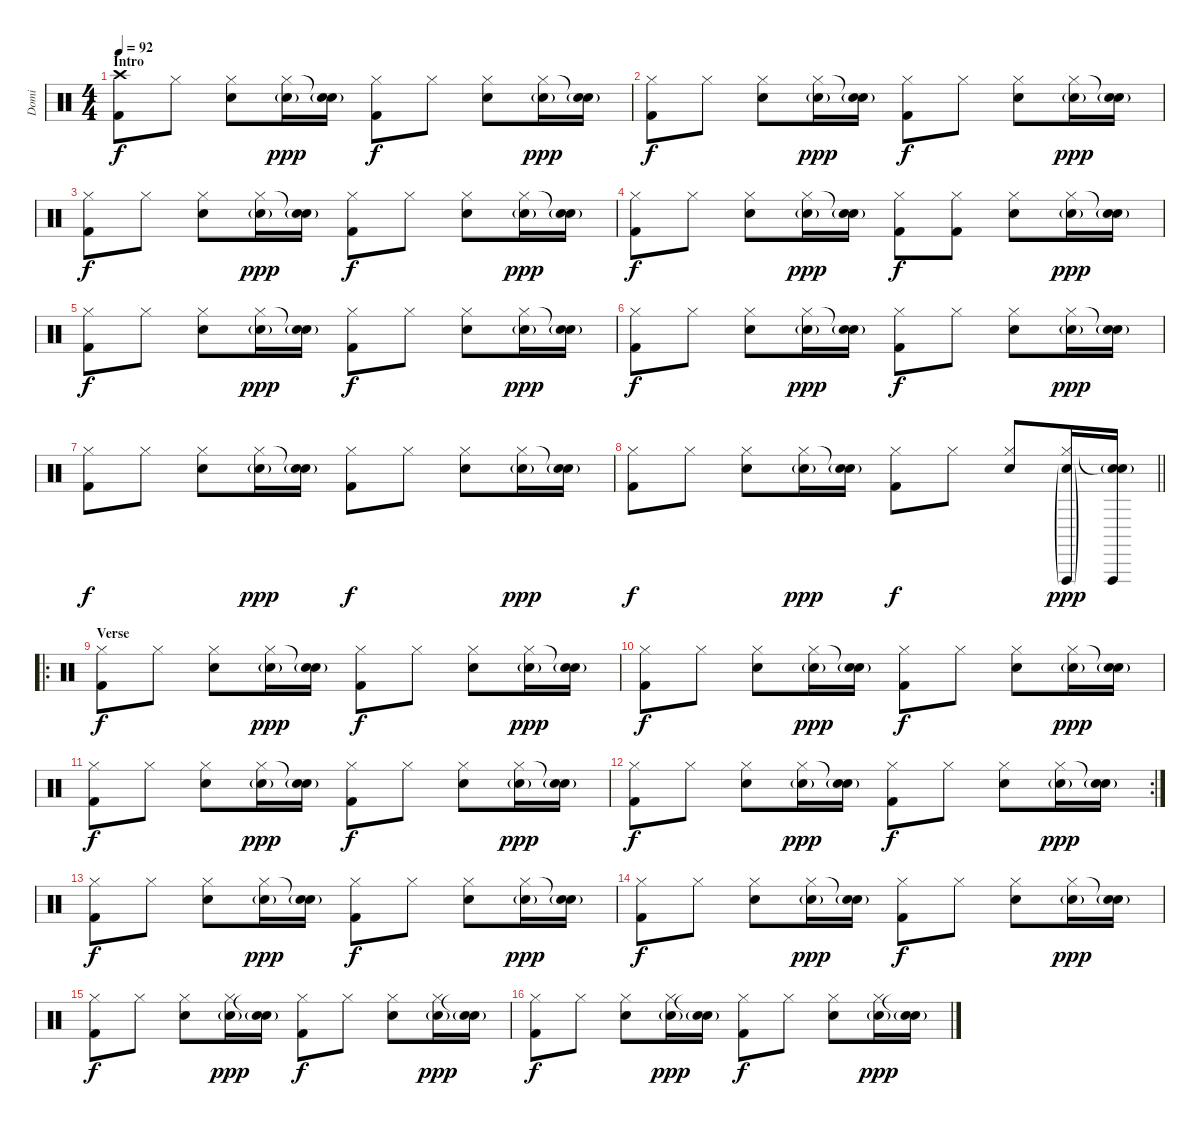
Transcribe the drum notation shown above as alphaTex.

\track ("Domi" "Domi") {instrument percussion}
\staff {score}
\articulation defaults
\ts (4 4)
\section ("" "Intro")
\tempo 92
\clef neutral
\ks c
("Crash high (hit)" "Kick (hit) 2").8{dy f} "Hi-Hat (closed)".8 ("Hi-Hat (closed)" "Electric Snare (hit)").8 ("Hi-Hat (closed)" "Electric Snare (hit)"{g}).16{dy ppp} ("Snare (hit)"{t} "Electric Snare (hit)"{g}).16 ("Hi-Hat (closed)" "Kick (hit) 2").8{dy f} "Hi-Hat (closed)".8 ("Hi-Hat (closed)" "Electric Snare (hit)").8 ("Hi-Hat (closed)" "Electric Snare (hit)"{g}).16{dy ppp} ("Snare (hit)"{t} "Electric Snare (hit)"{g}).16 |
("Hi-Hat (closed)" "Kick (hit) 2").8{dy f} "Hi-Hat (closed)".8 ("Hi-Hat (closed)" "Electric Snare (hit)").8 ("Hi-Hat (closed)" "Electric Snare (hit)"{g}).16{dy ppp} ("Snare (hit)"{t} "Electric Snare (hit)"{g}).16 ("Hi-Hat (closed)" "Kick (hit) 2").8{dy f} "Hi-Hat (closed)".8 ("Hi-Hat (closed)" "Electric Snare (hit)").8 ("Hi-Hat (closed)" "Electric Snare (hit)"{g}).16{dy ppp} ("Snare (hit)"{t} "Electric Snare (hit)"{g}).16 |
("Hi-Hat (closed)" "Kick (hit) 2").8{dy f} "Hi-Hat (closed)".8 ("Hi-Hat (closed)" "Electric Snare (hit)").8 ("Hi-Hat (closed)" "Electric Snare (hit)"{g}).16{dy ppp} ("Snare (hit)"{t} "Electric Snare (hit)"{g}).16 ("Hi-Hat (closed)" "Kick (hit) 2").8{dy f} "Hi-Hat (closed)".8 ("Hi-Hat (closed)" "Electric Snare (hit)").8 ("Hi-Hat (closed)" "Electric Snare (hit)"{g}).16{dy ppp} ("Snare (hit)"{t} "Electric Snare (hit)"{g}).16 |
("Hi-Hat (closed)" "Kick (hit) 2").8{dy f} "Hi-Hat (closed)".8 ("Hi-Hat (closed)" "Electric Snare (hit)").8 ("Hi-Hat (closed)" "Electric Snare (hit)"{g}).16{dy ppp} ("Snare (hit)"{t} "Electric Snare (hit)"{g}).16 ("Hi-Hat (closed)" "Kick (hit) 2").8{dy f} ("Hi-Hat (closed)" "Kick (hit) 2").8 ("Hi-Hat (closed)" "Electric Snare (hit)").8 ("Hi-Hat (closed)" "Electric Snare (hit)"{g}).16{dy ppp} ("Snare (hit)"{t} "Electric Snare (hit)"{g}).16 |
("Hi-Hat (closed)" "Kick (hit) 2").8{dy f} "Hi-Hat (closed)".8 ("Hi-Hat (closed)" "Electric Snare (hit)").8 ("Hi-Hat (closed)" "Electric Snare (hit)"{g}).16{dy ppp} ("Snare (hit)"{t} "Electric Snare (hit)"{g}).16 ("Hi-Hat (closed)" "Kick (hit) 2").8{dy f} "Hi-Hat (closed)".8 ("Hi-Hat (closed)" "Electric Snare (hit)").8 ("Hi-Hat (closed)" "Electric Snare (hit)"{g}).16{dy ppp} ("Snare (hit)"{t} "Electric Snare (hit)"{g}).16 |
("Hi-Hat (closed)" "Kick (hit) 2").8{dy f} "Hi-Hat (closed)".8 ("Hi-Hat (closed)" "Electric Snare (hit)").8 ("Hi-Hat (closed)" "Electric Snare (hit)"{g}).16{dy ppp} ("Snare (hit)"{t} "Electric Snare (hit)"{g}).16 ("Hi-Hat (closed)" "Kick (hit) 2").8{dy f} "Hi-Hat (closed)".8 ("Hi-Hat (closed)" "Electric Snare (hit)").8 ("Hi-Hat (closed)" "Electric Snare (hit)"{g}).16{dy ppp} ("Snare (hit)"{t} "Electric Snare (hit)"{g}).16 |
("Hi-Hat (closed)" "Kick (hit) 2").8{dy f} "Hi-Hat (closed)".8 ("Hi-Hat (closed)" "Electric Snare (hit)").8 ("Hi-Hat (closed)" "Electric Snare (hit)"{g}).16{dy ppp} ("Snare (hit)"{t} "Electric Snare (hit)"{g}).16 ("Hi-Hat (closed)" "Kick (hit) 2").8{dy f} "Hi-Hat (closed)".8 ("Hi-Hat (closed)" "Electric Snare (hit)").8 ("Hi-Hat (closed)" "Electric Snare (hit)"{g}).16{dy ppp} ("Snare (hit)"{t} "Electric Snare (hit)"{g}).16 |
\barLineRight lightlight
("Hi-Hat (closed)" "Kick (hit) 2").8{dy f} "Hi-Hat (closed)".8 ("Hi-Hat (closed)" "Electric Snare (hit)").8 ("Hi-Hat (closed)" "Electric Snare (hit)"{g}).16{dy ppp} ("Snare (hit)"{t} "Electric Snare (hit)"{g}).16 ("Hi-Hat (closed)" "Kick (hit) 2").8{dy f} "Hi-Hat (closed)".8 ("Hi-Hat (closed)" "Electric Snare (hit)").8 ("Hi-Hat (closed)" "Vibraslap (hit)"{g} "Electric Snare (hit)"{g}).16{dy ppp} ("Snare (hit)"{t} "Vibraslap (hit)" "Electric Snare (hit)"{g}).16 |
\ro
\section ("" "Verse")
("Hi-Hat (closed)" "Kick (hit) 2").8{dy f} "Hi-Hat (closed)".8 ("Hi-Hat (closed)" "Electric Snare (hit)").8 ("Hi-Hat (closed)" "Electric Snare (hit)"{g}).16{dy ppp} ("Snare (hit)"{t} "Electric Snare (hit)"{g}).16 ("Hi-Hat (closed)" "Kick (hit) 2").8{dy f} "Hi-Hat (closed)".8 ("Hi-Hat (closed)" "Electric Snare (hit)").8 ("Hi-Hat (closed)" "Electric Snare (hit)"{g}).16{dy ppp} ("Snare (hit)"{t} "Electric Snare (hit)"{g}).16 |
("Hi-Hat (closed)" "Kick (hit) 2").8{dy f} "Hi-Hat (closed)".8 ("Hi-Hat (closed)" "Electric Snare (hit)").8 ("Hi-Hat (closed)" "Electric Snare (hit)"{g}).16{dy ppp} ("Snare (hit)"{t} "Electric Snare (hit)"{g}).16 ("Hi-Hat (closed)" "Kick (hit) 2").8{dy f} "Hi-Hat (closed)".8 ("Hi-Hat (closed)" "Electric Snare (hit)").8 ("Hi-Hat (closed)" "Electric Snare (hit)"{g}).16{dy ppp} ("Snare (hit)"{t} "Electric Snare (hit)"{g}).16 |
("Hi-Hat (closed)" "Kick (hit) 2").8{dy f} "Hi-Hat (closed)".8 ("Hi-Hat (closed)" "Electric Snare (hit)").8 ("Hi-Hat (closed)" "Electric Snare (hit)"{g}).16{dy ppp} ("Snare (hit)"{t} "Electric Snare (hit)"{g}).16 ("Hi-Hat (closed)" "Kick (hit) 2").8{dy f} "Hi-Hat (closed)".8 ("Hi-Hat (closed)" "Electric Snare (hit)").8 ("Hi-Hat (closed)" "Electric Snare (hit)"{g}).16{dy ppp} ("Snare (hit)"{t} "Electric Snare (hit)"{g}).16 |
\rc 2
("Hi-Hat (closed)" "Kick (hit) 2").8{dy f} "Hi-Hat (closed)".8 ("Hi-Hat (closed)" "Electric Snare (hit)").8 ("Hi-Hat (closed)" "Electric Snare (hit)"{g}).16{dy ppp} ("Snare (hit)"{t} "Electric Snare (hit)"{g}).16 ("Hi-Hat (closed)" "Kick (hit) 2").8{dy f} "Hi-Hat (closed)".8 ("Hi-Hat (closed)" "Electric Snare (hit)").8 ("Hi-Hat (closed)" "Electric Snare (hit)"{g}).16{dy ppp} ("Snare (hit)"{t} "Electric Snare (hit)"{g}).16 |
("Hi-Hat (closed)" "Kick (hit) 2").8{dy f} "Hi-Hat (closed)".8 ("Hi-Hat (closed)" "Electric Snare (hit)").8 ("Hi-Hat (closed)" "Electric Snare (hit)"{g}).16{dy ppp} ("Snare (hit)"{t} "Electric Snare (hit)"{g}).16 ("Hi-Hat (closed)" "Kick (hit) 2").8{dy f} "Hi-Hat (closed)".8 ("Hi-Hat (closed)" "Electric Snare (hit)").8 ("Hi-Hat (closed)" "Electric Snare (hit)"{g}).16{dy ppp} ("Snare (hit)"{t} "Electric Snare (hit)"{g}).16 |
("Hi-Hat (closed)" "Kick (hit) 2").8{dy f} "Hi-Hat (closed)".8 ("Hi-Hat (closed)" "Electric Snare (hit)").8 ("Hi-Hat (closed)" "Electric Snare (hit)"{g}).16{dy ppp} ("Snare (hit)"{t} "Electric Snare (hit)"{g}).16 ("Hi-Hat (closed)" "Kick (hit) 2").8{dy f} "Hi-Hat (closed)".8 ("Hi-Hat (closed)" "Electric Snare (hit)").8 ("Hi-Hat (closed)" "Electric Snare (hit)"{g}).16{dy ppp} ("Snare (hit)"{t} "Electric Snare (hit)"{g}).16 |
("Hi-Hat (closed)" "Kick (hit) 2").8{dy f} "Hi-Hat (closed)".8 ("Hi-Hat (closed)" "Electric Snare (hit)").8 ("Hi-Hat (closed)" "Electric Snare (hit)"{g}).16{dy ppp} ("Snare (hit)"{t} "Electric Snare (hit)"{g}).16 ("Hi-Hat (closed)" "Kick (hit) 2").8{dy f} "Hi-Hat (closed)".8 ("Hi-Hat (closed)" "Electric Snare (hit)").8 ("Hi-Hat (closed)" "Electric Snare (hit)"{g}).16{dy ppp} ("Snare (hit)"{t} "Electric Snare (hit)"{g}).16 |
("Hi-Hat (closed)" "Kick (hit) 2").8{dy f} "Hi-Hat (closed)".8 ("Hi-Hat (closed)" "Electric Snare (hit)").8 ("Hi-Hat (closed)" "Electric Snare (hit)"{g}).16{dy ppp} ("Snare (hit)"{t} "Electric Snare (hit)"{g}).16 ("Hi-Hat (closed)" "Kick (hit) 2").8{dy f} "Hi-Hat (closed)".8 ("Hi-Hat (closed)" "Electric Snare (hit)").8 ("Hi-Hat (closed)" "Electric Snare (hit)"{g}).16{dy ppp} ("Snare (hit)"{t} "Electric Snare (hit)"{g}).16
